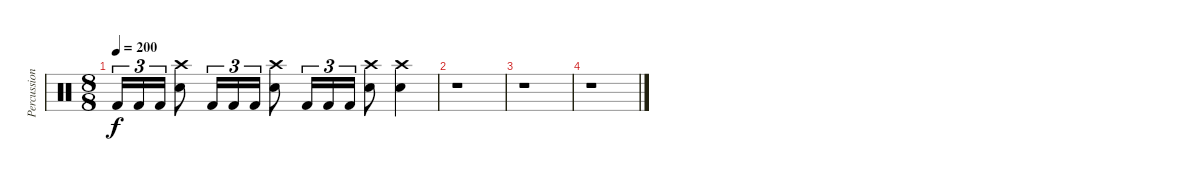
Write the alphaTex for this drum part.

\track ("Percussions" "Percussion") {instrument percussion}
\staff {score}
\articulation defaults
\ts (8 8)
\tempo 200
\clef neutral
\ks c "Kick (hit) 2".16{tu (3 2) dy f} "Kick (hit) 2".16{tu (3 2)} "Kick (hit) 2".16{tu (3 2)}
("Crash high (hit)" "Snare (hit) 2").8 "Kick (hit) 2".16{tu (3 2)} "Kick (hit) 2".16{tu (3 2)} "Kick (hit) 2".16{tu (3 2)} ("Crash high (hit)" "Snare (hit) 2").8 "Kick (hit) 2".16{tu (3 2)} "Kick (hit) 2".16{tu (3 2)} "Kick (hit) 2".16{tu (3 2)} ("Crash high (hit)" "Snare (hit) 2").8 ("Crash high (hit)" "Snare (hit) 2").4 |
r.1 |
r.1 |
r.1
